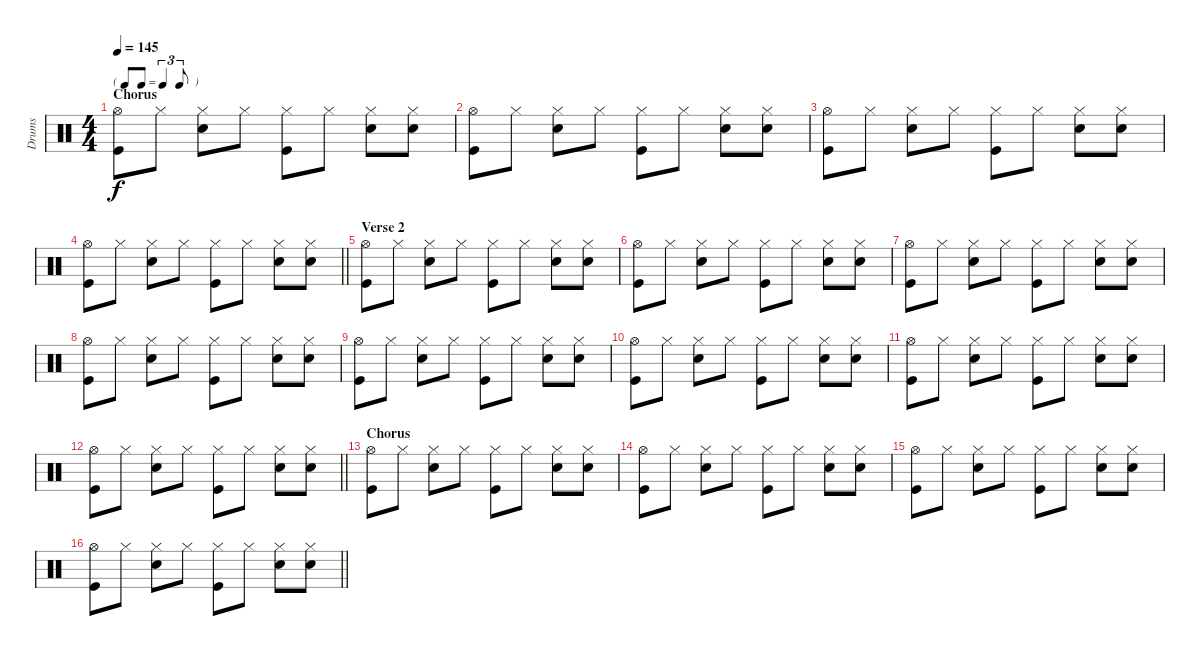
\track ("Drums" "Drums") {instrument percussion}
\staff {score}
\articulation defaults
\ts (4 4)
\tf triplet8th
\section ("" "Chorus")
\tempo 145
\clef neutral
\ks c
("Kick (hit)" "Hi-Hat (open)").8{dy f} "Hi-Hat (closed)".8 ("Snare (hit) 2" "Hi-Hat (closed)").8 "Hi-Hat (closed)".8 ("Kick (hit)" "Hi-Hat (closed)").8 "Hi-Hat (closed)".8 ("Snare (hit) 2" "Hi-Hat (closed)").8 ("Snare (hit) 2" "Hi-Hat (closed)").8 |
("Kick (hit)" "Hi-Hat (open)").8 "Hi-Hat (closed)".8 ("Snare (hit) 2" "Hi-Hat (closed)").8 "Hi-Hat (closed)".8 ("Kick (hit)" "Hi-Hat (closed)").8 "Hi-Hat (closed)".8 ("Snare (hit) 2" "Hi-Hat (closed)").8 ("Snare (hit) 2" "Hi-Hat (closed)").8 |
("Kick (hit)" "Hi-Hat (open)").8 "Hi-Hat (closed)".8 ("Snare (hit) 2" "Hi-Hat (closed)").8 "Hi-Hat (closed)".8 ("Kick (hit)" "Hi-Hat (closed)").8 "Hi-Hat (closed)".8 ("Snare (hit) 2" "Hi-Hat (closed)").8 ("Snare (hit) 2" "Hi-Hat (closed)").8 |
\barLineRight lightlight
("Kick (hit)" "Hi-Hat (open)").8 "Hi-Hat (closed)".8 ("Snare (hit) 2" "Hi-Hat (closed)").8 "Hi-Hat (closed)".8 ("Kick (hit)" "Hi-Hat (closed)").8 "Hi-Hat (closed)".8 ("Snare (hit) 2" "Hi-Hat (closed)").8 ("Snare (hit) 2" "Hi-Hat (closed)").8 |
\section ("" "Verse 2")
("Kick (hit)" "Hi-Hat (open)").8 "Hi-Hat (closed)".8 ("Snare (hit) 2" "Hi-Hat (closed)").8 "Hi-Hat (closed)".8 ("Kick (hit)" "Hi-Hat (closed)").8 "Hi-Hat (closed)".8 ("Snare (hit) 2" "Hi-Hat (closed)").8 ("Snare (hit) 2" "Hi-Hat (closed)").8 |
("Kick (hit)" "Hi-Hat (open)").8 "Hi-Hat (closed)".8 ("Snare (hit) 2" "Hi-Hat (closed)").8 "Hi-Hat (closed)".8 ("Kick (hit)" "Hi-Hat (closed)").8 "Hi-Hat (closed)".8 ("Snare (hit) 2" "Hi-Hat (closed)").8 ("Snare (hit) 2" "Hi-Hat (closed)").8 |
("Kick (hit)" "Hi-Hat (open)").8 "Hi-Hat (closed)".8 ("Snare (hit) 2" "Hi-Hat (closed)").8 "Hi-Hat (closed)".8 ("Kick (hit)" "Hi-Hat (closed)").8 "Hi-Hat (closed)".8 ("Snare (hit) 2" "Hi-Hat (closed)").8 ("Snare (hit) 2" "Hi-Hat (closed)").8 |
("Kick (hit)" "Hi-Hat (open)").8 "Hi-Hat (closed)".8 ("Snare (hit) 2" "Hi-Hat (closed)").8 "Hi-Hat (closed)".8 ("Kick (hit)" "Hi-Hat (closed)").8 "Hi-Hat (closed)".8 ("Snare (hit) 2" "Hi-Hat (closed)").8 ("Snare (hit) 2" "Hi-Hat (closed)").8 |
("Kick (hit)" "Hi-Hat (open)").8 "Hi-Hat (closed)".8 ("Snare (hit) 2" "Hi-Hat (closed)").8 "Hi-Hat (closed)".8 ("Kick (hit)" "Hi-Hat (closed)").8 "Hi-Hat (closed)".8 ("Snare (hit) 2" "Hi-Hat (closed)").8 ("Snare (hit) 2" "Hi-Hat (closed)").8 |
("Kick (hit)" "Hi-Hat (open)").8 "Hi-Hat (closed)".8 ("Snare (hit) 2" "Hi-Hat (closed)").8 "Hi-Hat (closed)".8 ("Kick (hit)" "Hi-Hat (closed)").8 "Hi-Hat (closed)".8 ("Snare (hit) 2" "Hi-Hat (closed)").8 ("Snare (hit) 2" "Hi-Hat (closed)").8 |
("Kick (hit)" "Hi-Hat (open)").8 "Hi-Hat (closed)".8 ("Snare (hit) 2" "Hi-Hat (closed)").8 "Hi-Hat (closed)".8 ("Kick (hit)" "Hi-Hat (closed)").8 "Hi-Hat (closed)".8 ("Snare (hit) 2" "Hi-Hat (closed)").8 ("Snare (hit) 2" "Hi-Hat (closed)").8 |
\barLineRight lightlight
("Kick (hit)" "Hi-Hat (open)").8 "Hi-Hat (closed)".8 ("Snare (hit) 2" "Hi-Hat (closed)").8 "Hi-Hat (closed)".8 ("Kick (hit)" "Hi-Hat (closed)").8 "Hi-Hat (closed)".8 ("Snare (hit) 2" "Hi-Hat (closed)").8 ("Snare (hit) 2" "Hi-Hat (closed)").8 |
\section ("" "Chorus")
("Kick (hit)" "Hi-Hat (open)").8 "Hi-Hat (closed)".8 ("Snare (hit) 2" "Hi-Hat (closed)").8 "Hi-Hat (closed)".8 ("Kick (hit)" "Hi-Hat (closed)").8 "Hi-Hat (closed)".8 ("Snare (hit) 2" "Hi-Hat (closed)").8 ("Snare (hit) 2" "Hi-Hat (closed)").8 |
("Kick (hit)" "Hi-Hat (open)").8 "Hi-Hat (closed)".8 ("Snare (hit) 2" "Hi-Hat (closed)").8 "Hi-Hat (closed)".8 ("Kick (hit)" "Hi-Hat (closed)").8 "Hi-Hat (closed)".8 ("Snare (hit) 2" "Hi-Hat (closed)").8 ("Snare (hit) 2" "Hi-Hat (closed)").8 |
("Kick (hit)" "Hi-Hat (open)").8 "Hi-Hat (closed)".8 ("Snare (hit) 2" "Hi-Hat (closed)").8 "Hi-Hat (closed)".8 ("Kick (hit)" "Hi-Hat (closed)").8 "Hi-Hat (closed)".8 ("Snare (hit) 2" "Hi-Hat (closed)").8 ("Snare (hit) 2" "Hi-Hat (closed)").8 |
\barLineRight lightlight
("Kick (hit)" "Hi-Hat (open)").8 "Hi-Hat (closed)".8 ("Snare (hit) 2" "Hi-Hat (closed)").8 "Hi-Hat (closed)".8 ("Kick (hit)" "Hi-Hat (closed)").8 "Hi-Hat (closed)".8 ("Snare (hit) 2" "Hi-Hat (closed)").8 ("Snare (hit) 2" "Hi-Hat (closed)").8
